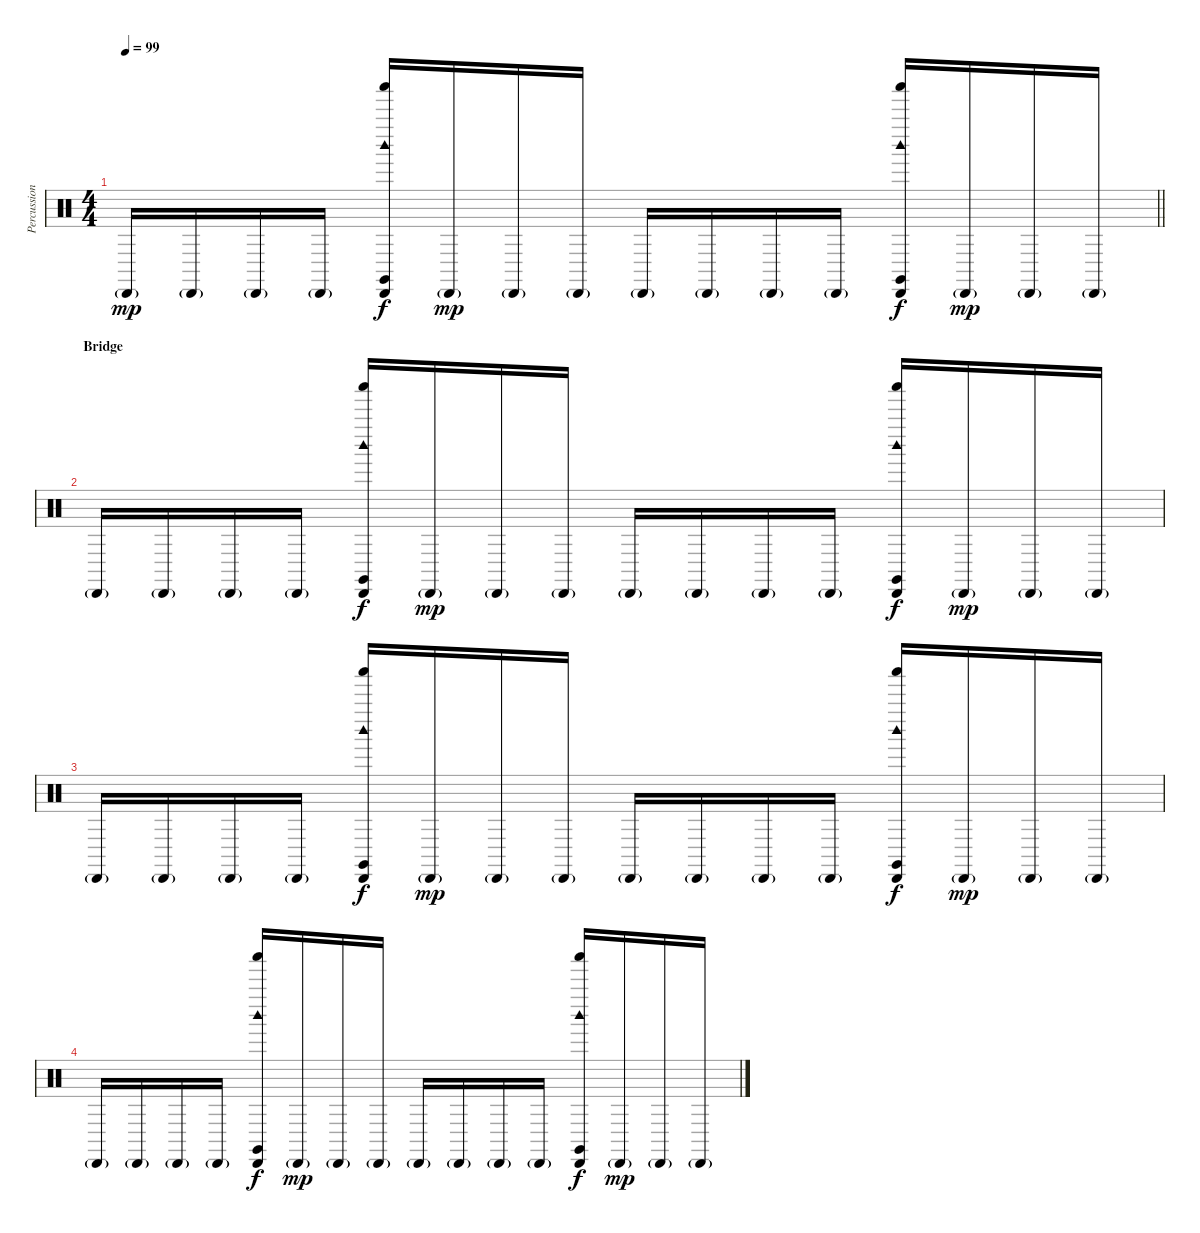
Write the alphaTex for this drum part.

\track ("Percussion" "Percussion") {instrument percussion}
\staff {score}
\articulation defaults
\ts (4 4)
\tempo 99
\clef neutral
\barLineRight lightlight
\ks c "Cabasa (hit)"{g}.16{dy mp} "Cabasa (hit)"{g}.16 "Cabasa (hit)"{g}.16 "Cabasa (hit)"{g}.16
("Cabasa (hit)" "Shaker (hit)" "Claves (hit)" "Woodblock high (hit)").16{dy f} "Cabasa (hit)"{g}.16{dy mp} "Cabasa (hit)"{g}.16 "Cabasa (hit)"{g}.16 "Cabasa (hit)"{g}.16 "Cabasa (hit)"{g}.16 "Cabasa (hit)"{g}.16 "Cabasa (hit)"{g}.16 ("Cabasa (hit)" "Shaker (hit)" "Claves (hit)" "Woodblock high (hit)").16{dy f} "Cabasa (hit)"{g}.16{dy mp} "Cabasa (hit)"{g}.16 "Cabasa (hit)"{g}.16 |
\section ("" "Bridge")
"Cabasa (hit)"{g}.16 "Cabasa (hit)"{g}.16 "Cabasa (hit)"{g}.16 "Cabasa (hit)"{g}.16 ("Cabasa (hit)" "Shaker (hit)" "Claves (hit)" "Woodblock high (hit)").16{dy f} "Cabasa (hit)"{g}.16{dy mp} "Cabasa (hit)"{g}.16 "Cabasa (hit)"{g}.16 "Cabasa (hit)"{g}.16 "Cabasa (hit)"{g}.16 "Cabasa (hit)"{g}.16 "Cabasa (hit)"{g}.16 ("Cabasa (hit)" "Shaker (hit)" "Claves (hit)" "Woodblock high (hit)").16{dy f} "Cabasa (hit)"{g}.16{dy mp} "Cabasa (hit)"{g}.16 "Cabasa (hit)"{g}.16 |
"Cabasa (hit)"{g}.16 "Cabasa (hit)"{g}.16 "Cabasa (hit)"{g}.16 "Cabasa (hit)"{g}.16 ("Cabasa (hit)" "Shaker (hit)" "Claves (hit)" "Woodblock high (hit)").16{dy f} "Cabasa (hit)"{g}.16{dy mp} "Cabasa (hit)"{g}.16 "Cabasa (hit)"{g}.16 "Cabasa (hit)"{g}.16 "Cabasa (hit)"{g}.16 "Cabasa (hit)"{g}.16 "Cabasa (hit)"{g}.16 ("Cabasa (hit)" "Shaker (hit)" "Claves (hit)" "Woodblock high (hit)").16{dy f} "Cabasa (hit)"{g}.16{dy mp} "Cabasa (hit)"{g}.16 "Cabasa (hit)"{g}.16 |
"Cabasa (hit)"{g}.16 "Cabasa (hit)"{g}.16 "Cabasa (hit)"{g}.16 "Cabasa (hit)"{g}.16 ("Cabasa (hit)" "Shaker (hit)" "Claves (hit)" "Woodblock high (hit)").16{dy f} "Cabasa (hit)"{g}.16{dy mp} "Cabasa (hit)"{g}.16 "Cabasa (hit)"{g}.16 "Cabasa (hit)"{g}.16 "Cabasa (hit)"{g}.16 "Cabasa (hit)"{g}.16 "Cabasa (hit)"{g}.16 ("Cabasa (hit)" "Shaker (hit)" "Claves (hit)" "Woodblock high (hit)").16{dy f} "Cabasa (hit)"{g}.16{dy mp} "Cabasa (hit)"{g}.16 "Cabasa (hit)"{g}.16
